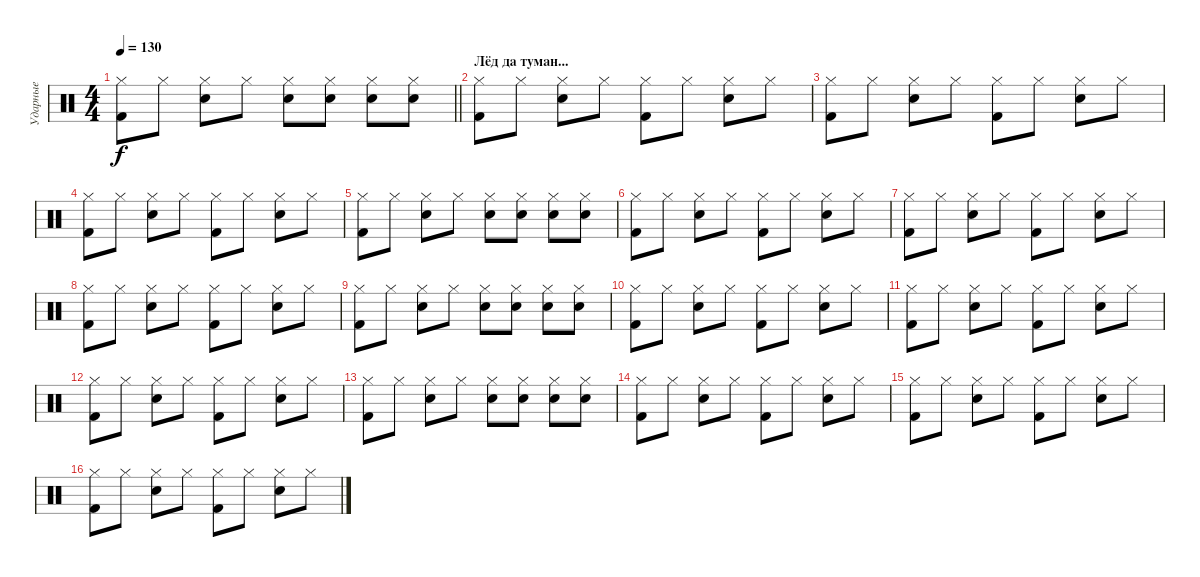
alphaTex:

\track ("Ударные" "Ударные") {instrument percussion}
\staff {score}
\articulation defaults
\ts (4 4)
\tempo 130
\clef neutral
\barLineRight lightlight
\ks c
("Hi-Hat (closed)" "Kick (hit) 2").8{dy f} "Hi-Hat (closed)".8 ("Hi-Hat (closed)" "Snare (hit) 2").8 "Hi-Hat (closed)".8 ("Hi-Hat (closed)" "Snare (hit) 2").8 ("Hi-Hat (closed)" "Snare (hit) 2").8 ("Hi-Hat (closed)" "Snare (hit) 2").8 ("Hi-Hat (closed)" "Snare (hit) 2").8 |
\section ("" "Лёд да туман...")
("Hi-Hat (closed)" "Kick (hit) 2").8 "Hi-Hat (closed)".8 ("Hi-Hat (closed)" "Snare (hit) 2").8 "Hi-Hat (closed)".8 ("Hi-Hat (closed)" "Kick (hit) 2").8 "Hi-Hat (closed)".8 ("Hi-Hat (closed)" "Snare (hit) 2").8 "Hi-Hat (closed)".8 |
("Hi-Hat (closed)" "Kick (hit) 2").8 "Hi-Hat (closed)".8 ("Hi-Hat (closed)" "Snare (hit) 2").8 "Hi-Hat (closed)".8 ("Hi-Hat (closed)" "Kick (hit) 2").8 "Hi-Hat (closed)".8 ("Hi-Hat (closed)" "Snare (hit) 2").8 "Hi-Hat (closed)".8 |
("Hi-Hat (closed)" "Kick (hit) 2").8 "Hi-Hat (closed)".8 ("Hi-Hat (closed)" "Snare (hit) 2").8 "Hi-Hat (closed)".8 ("Hi-Hat (closed)" "Kick (hit) 2").8 "Hi-Hat (closed)".8 ("Hi-Hat (closed)" "Snare (hit) 2").8 "Hi-Hat (closed)".8 |
("Hi-Hat (closed)" "Kick (hit) 2").8 "Hi-Hat (closed)".8 ("Hi-Hat (closed)" "Snare (hit) 2").8 "Hi-Hat (closed)".8 ("Hi-Hat (closed)" "Snare (hit) 2").8 ("Hi-Hat (closed)" "Snare (hit) 2").8 ("Hi-Hat (closed)" "Snare (hit) 2").8 ("Hi-Hat (closed)" "Snare (hit) 2").8 |
("Hi-Hat (closed)" "Kick (hit) 2").8 "Hi-Hat (closed)".8 ("Hi-Hat (closed)" "Snare (hit) 2").8 "Hi-Hat (closed)".8 ("Hi-Hat (closed)" "Kick (hit) 2").8 "Hi-Hat (closed)".8 ("Hi-Hat (closed)" "Snare (hit) 2").8 "Hi-Hat (closed)".8 |
("Hi-Hat (closed)" "Kick (hit) 2").8 "Hi-Hat (closed)".8 ("Hi-Hat (closed)" "Snare (hit) 2").8 "Hi-Hat (closed)".8 ("Hi-Hat (closed)" "Kick (hit) 2").8 "Hi-Hat (closed)".8 ("Hi-Hat (closed)" "Snare (hit) 2").8 "Hi-Hat (closed)".8 |
("Hi-Hat (closed)" "Kick (hit) 2").8 "Hi-Hat (closed)".8 ("Hi-Hat (closed)" "Snare (hit) 2").8 "Hi-Hat (closed)".8 ("Hi-Hat (closed)" "Kick (hit) 2").8 "Hi-Hat (closed)".8 ("Hi-Hat (closed)" "Snare (hit) 2").8 "Hi-Hat (closed)".8 |
("Hi-Hat (closed)" "Kick (hit) 2").8 "Hi-Hat (closed)".8 ("Hi-Hat (closed)" "Snare (hit) 2").8 "Hi-Hat (closed)".8 ("Hi-Hat (closed)" "Snare (hit) 2").8 ("Hi-Hat (closed)" "Snare (hit) 2").8 ("Hi-Hat (closed)" "Snare (hit) 2").8 ("Hi-Hat (closed)" "Snare (hit) 2").8 |
("Hi-Hat (closed)" "Kick (hit) 2").8 "Hi-Hat (closed)".8 ("Hi-Hat (closed)" "Snare (hit) 2").8 "Hi-Hat (closed)".8 ("Hi-Hat (closed)" "Kick (hit) 2").8 "Hi-Hat (closed)".8 ("Hi-Hat (closed)" "Snare (hit) 2").8 "Hi-Hat (closed)".8 |
("Hi-Hat (closed)" "Kick (hit) 2").8 "Hi-Hat (closed)".8 ("Hi-Hat (closed)" "Snare (hit) 2").8 "Hi-Hat (closed)".8 ("Hi-Hat (closed)" "Kick (hit) 2").8 "Hi-Hat (closed)".8 ("Hi-Hat (closed)" "Snare (hit) 2").8 "Hi-Hat (closed)".8 |
("Hi-Hat (closed)" "Kick (hit) 2").8 "Hi-Hat (closed)".8 ("Hi-Hat (closed)" "Snare (hit) 2").8 "Hi-Hat (closed)".8 ("Hi-Hat (closed)" "Kick (hit) 2").8 "Hi-Hat (closed)".8 ("Hi-Hat (closed)" "Snare (hit) 2").8 "Hi-Hat (closed)".8 |
("Hi-Hat (closed)" "Kick (hit) 2").8 "Hi-Hat (closed)".8 ("Hi-Hat (closed)" "Snare (hit) 2").8 "Hi-Hat (closed)".8 ("Hi-Hat (closed)" "Snare (hit) 2").8 ("Hi-Hat (closed)" "Snare (hit) 2").8 ("Hi-Hat (closed)" "Snare (hit) 2").8 ("Hi-Hat (closed)" "Snare (hit) 2").8 |
("Hi-Hat (closed)" "Kick (hit) 2").8 "Hi-Hat (closed)".8 ("Hi-Hat (closed)" "Snare (hit) 2").8 "Hi-Hat (closed)".8 ("Hi-Hat (closed)" "Kick (hit) 2").8 "Hi-Hat (closed)".8 ("Hi-Hat (closed)" "Snare (hit) 2").8 "Hi-Hat (closed)".8 |
("Hi-Hat (closed)" "Kick (hit) 2").8 "Hi-Hat (closed)".8 ("Hi-Hat (closed)" "Snare (hit) 2").8 "Hi-Hat (closed)".8 ("Hi-Hat (closed)" "Kick (hit) 2").8 "Hi-Hat (closed)".8 ("Hi-Hat (closed)" "Snare (hit) 2").8 "Hi-Hat (closed)".8 |
("Hi-Hat (closed)" "Kick (hit) 2").8 "Hi-Hat (closed)".8 ("Hi-Hat (closed)" "Snare (hit) 2").8 "Hi-Hat (closed)".8 ("Hi-Hat (closed)" "Kick (hit) 2").8 "Hi-Hat (closed)".8 ("Hi-Hat (closed)" "Snare (hit) 2").8 "Hi-Hat (closed)".8
